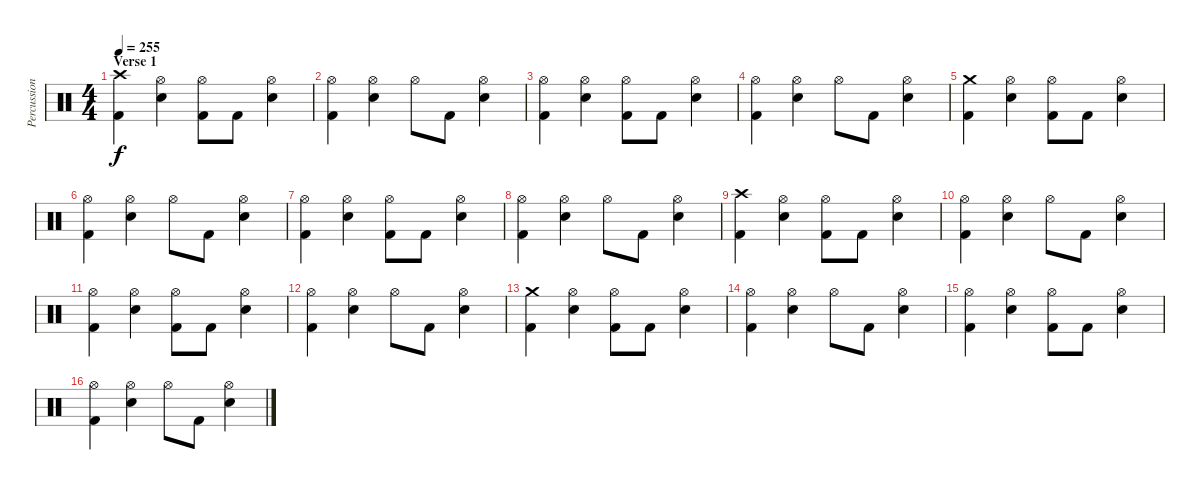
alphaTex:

\track ("Percussion" "Percussion") {instrument percussion}
\staff {score}
\articulation defaults
\ts (4 4)
\section ("" "Verse 1")
\tempo 255
\clef neutral
\ks c
("Crash high (hit)" "Kick (hit) 2").4{dy f} ("Hi-Hat (open)" "Electric Snare (hit)").4 ("Hi-Hat (open)" "Kick (hit) 2").8 "Kick (hit) 2".8 ("Hi-Hat (open)" "Electric Snare (hit)").4 |
("Hi-Hat (open)" "Kick (hit) 2").4 ("Hi-Hat (open)" "Electric Snare (hit)").4 "Hi-Hat (open)".8 "Kick (hit) 2".8 ("Hi-Hat (open)" "Electric Snare (hit)").4 |
("Hi-Hat (open)" "Kick (hit) 2").4 ("Hi-Hat (open)" "Electric Snare (hit)").4 ("Hi-Hat (open)" "Kick (hit) 2").8 "Kick (hit) 2".8 ("Hi-Hat (open)" "Electric Snare (hit)").4 |
("Hi-Hat (open)" "Kick (hit) 2").4 ("Hi-Hat (open)" "Electric Snare (hit)").4 "Hi-Hat (open)".8 "Kick (hit) 2".8 ("Hi-Hat (open)" "Electric Snare (hit)").4 |
("Crash medium (hit)" "Kick (hit) 2").4 ("Hi-Hat (open)" "Electric Snare (hit)").4 ("Hi-Hat (open)" "Kick (hit) 2").8 "Kick (hit) 2".8 ("Hi-Hat (open)" "Electric Snare (hit)").4 |
("Hi-Hat (open)" "Kick (hit) 2").4 ("Hi-Hat (open)" "Electric Snare (hit)").4 "Hi-Hat (open)".8 "Kick (hit) 2".8 ("Hi-Hat (open)" "Electric Snare (hit)").4 |
("Hi-Hat (open)" "Kick (hit) 2").4 ("Hi-Hat (open)" "Electric Snare (hit)").4 ("Hi-Hat (open)" "Kick (hit) 2").8 "Kick (hit) 2".8 ("Hi-Hat (open)" "Electric Snare (hit)").4 |
("Hi-Hat (open)" "Kick (hit) 2").4 ("Hi-Hat (open)" "Electric Snare (hit)").4 "Hi-Hat (open)".8 "Kick (hit) 2".8 ("Hi-Hat (open)" "Electric Snare (hit)").4 |
("Crash high (hit)" "Kick (hit) 2").4 ("Hi-Hat (open)" "Electric Snare (hit)").4 ("Hi-Hat (open)" "Kick (hit) 2").8 "Kick (hit) 2".8 ("Hi-Hat (open)" "Electric Snare (hit)").4 |
("Hi-Hat (open)" "Kick (hit) 2").4 ("Hi-Hat (open)" "Electric Snare (hit)").4 "Hi-Hat (open)".8 "Kick (hit) 2".8 ("Hi-Hat (open)" "Electric Snare (hit)").4 |
("Hi-Hat (open)" "Kick (hit) 2").4 ("Hi-Hat (open)" "Electric Snare (hit)").4 ("Hi-Hat (open)" "Kick (hit) 2").8 "Kick (hit) 2".8 ("Hi-Hat (open)" "Electric Snare (hit)").4 |
("Hi-Hat (open)" "Kick (hit) 2").4 ("Hi-Hat (open)" "Electric Snare (hit)").4 "Hi-Hat (open)".8 "Kick (hit) 2".8 ("Hi-Hat (open)" "Electric Snare (hit)").4 |
("Crash medium (hit)" "Kick (hit) 2").4 ("Hi-Hat (open)" "Electric Snare (hit)").4 ("Hi-Hat (open)" "Kick (hit) 2").8 "Kick (hit) 2".8 ("Hi-Hat (open)" "Electric Snare (hit)").4 |
("Hi-Hat (open)" "Kick (hit) 2").4 ("Hi-Hat (open)" "Electric Snare (hit)").4 "Hi-Hat (open)".8 "Kick (hit) 2".8 ("Hi-Hat (open)" "Electric Snare (hit)").4 |
("Hi-Hat (open)" "Kick (hit) 2").4 ("Hi-Hat (open)" "Electric Snare (hit)").4 ("Hi-Hat (open)" "Kick (hit) 2").8 "Kick (hit) 2".8 ("Hi-Hat (open)" "Electric Snare (hit)").4 |
("Hi-Hat (open)" "Kick (hit) 2").4 ("Hi-Hat (open)" "Electric Snare (hit)").4 "Hi-Hat (open)".8 "Kick (hit) 2".8 ("Hi-Hat (open)" "Electric Snare (hit)").4
